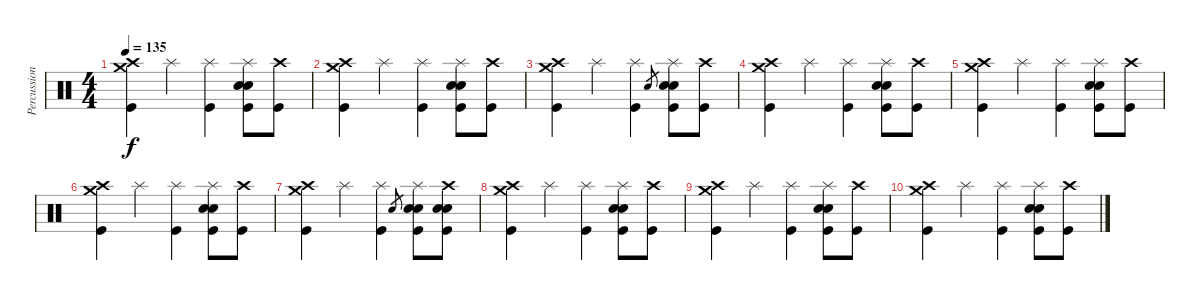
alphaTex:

\track ("Percussions" "Percussion") {instrument percussion}
\staff {score}
\articulation defaults
\ts (4 4)
\tempo 135
\clef neutral
\ks c
("Crash high (hit)" "Crash medium (hit)" "Kick (hit)").4{dy f} "Splash (hit)".4 ("Splash (hit)" "Kick (hit)").4 ("Splash (hit)" "Electric Snare (hit)" "Snare (hit) 2" "Kick (hit)").8 ("Crash high (hit)" "Kick (hit)").8 |
("Crash high (hit)" "Crash medium (hit)" "Kick (hit)").4 "Splash (hit)".4 ("Splash (hit)" "Kick (hit)").4 ("Splash (hit)" "Electric Snare (hit)" "Snare (hit) 2" "Kick (hit)").8 ("Crash high (hit)" "Kick (hit)").8 |
("Crash high (hit)" "Crash medium (hit)" "Kick (hit)").4 "Splash (hit)".4 ("Splash (hit)" "Kick (hit)").4 "Electric Snare (hit)".8{gr} ("Splash (hit)" "Electric Snare (hit)" "Snare (hit) 2" "Kick (hit)").8 ("Crash high (hit)" "Kick (hit)").8 |
("Crash high (hit)" "Crash medium (hit)" "Kick (hit)").4{volume 4} "Splash (hit)".4 ("Splash (hit)" "Kick (hit)").4 ("Splash (hit)" "Electric Snare (hit)" "Snare (hit) 2" "Kick (hit)").8 ("Crash high (hit)" "Kick (hit)").8 |
("Crash high (hit)" "Crash medium (hit)" "Kick (hit)").4 "Splash (hit)".4 ("Splash (hit)" "Kick (hit)").4 ("Splash (hit)" "Electric Snare (hit)" "Snare (hit) 2" "Kick (hit)").8 ("Crash high (hit)" "Kick (hit)").8 |
("Crash high (hit)" "Crash medium (hit)" "Kick (hit)").4 "Splash (hit)".4 ("Splash (hit)" "Kick (hit)").4 ("Splash (hit)" "Electric Snare (hit)" "Snare (hit) 2" "Kick (hit)").8 ("Crash high (hit)" "Kick (hit)").8 |
("Crash high (hit)" "Crash medium (hit)" "Kick (hit)").4 "Splash (hit)".4 ("Splash (hit)" "Kick (hit)").4 "Electric Snare (hit)".8{gr} ("Splash (hit)" "Electric Snare (hit)" "Snare (hit) 2" "Kick (hit)").8 ("Crash high (hit)" "Electric Snare (hit)" "Snare (hit) 2" "Kick (hit)").8 |
("Crash high (hit)" "Crash medium (hit)" "Kick (hit)").4{volume 0} "Splash (hit)".4 ("Splash (hit)" "Kick (hit)").4 ("Splash (hit)" "Electric Snare (hit)" "Snare (hit) 2" "Kick (hit)").8 ("Crash high (hit)" "Kick (hit)").8 |
("Crash high (hit)" "Crash medium (hit)" "Kick (hit)").4 "Splash (hit)".4 ("Splash (hit)" "Kick (hit)").4 ("Splash (hit)" "Electric Snare (hit)" "Snare (hit) 2" "Kick (hit)").8 ("Crash high (hit)" "Kick (hit)").8 |
("Crash high (hit)" "Crash medium (hit)" "Kick (hit)").4 "Splash (hit)".4 ("Splash (hit)" "Kick (hit)").4 ("Splash (hit)" "Electric Snare (hit)" "Snare (hit) 2" "Kick (hit)").8 ("Crash high (hit)" "Kick (hit)").8
